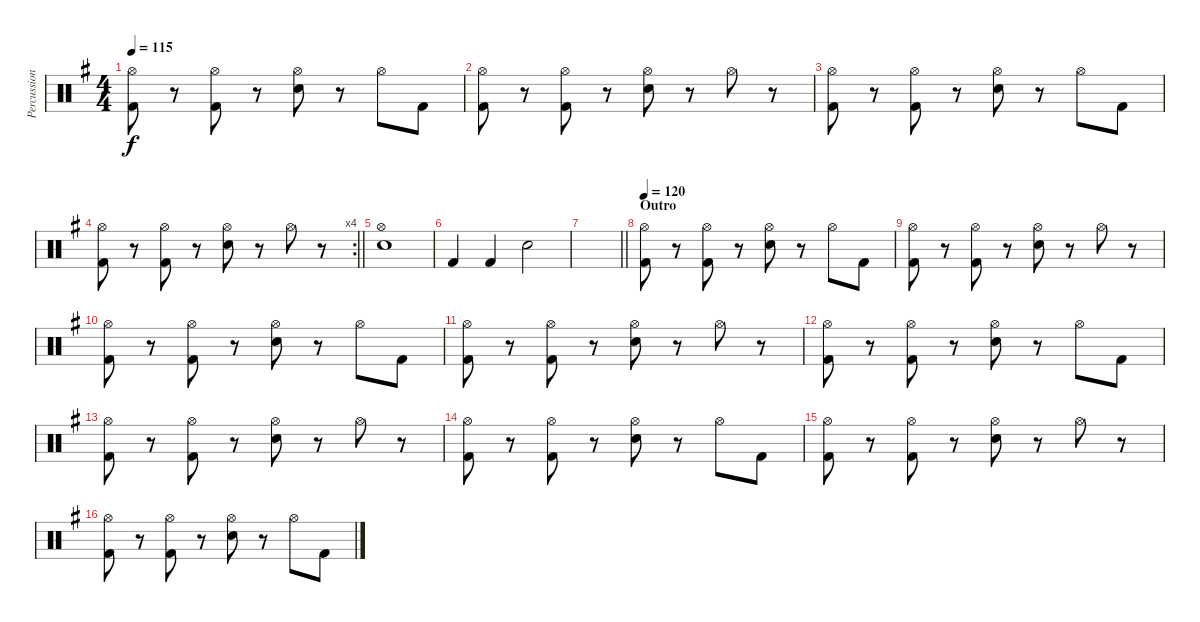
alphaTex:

\track ("Percussion" "Percussion") {instrument percussion}
\staff {score}
\articulation defaults
\ts (4 4)
\tempo 115
\clef neutral
\ks g
("Hi-Hat (open)" "Kick (hit) 2").8{dy f} r.8 ("Hi-Hat (open)" "Kick (hit) 2").8 r.8 ("Hi-Hat (open)" "Electric Snare (hit)").8 r.8 "Hi-Hat (open)".8 "Kick (hit) 2".8 |
("Hi-Hat (open)" "Kick (hit) 2").8 r.8 ("Hi-Hat (open)" "Kick (hit) 2").8 r.8 ("Hi-Hat (open)" "Electric Snare (hit)").8 r.8 "Hi-Hat (open)".8 r.8 |
("Hi-Hat (open)" "Kick (hit) 2").8 r.8 ("Hi-Hat (open)" "Kick (hit) 2").8 r.8 ("Hi-Hat (open)" "Electric Snare (hit)").8 r.8 "Hi-Hat (open)".8 "Kick (hit) 2".8 |
\rc 4
\barLineRight lightlight
("Hi-Hat (open)" "Kick (hit) 2").8 r.8 ("Hi-Hat (open)" "Kick (hit) 2").8 r.8 ("Hi-Hat (open)" "Electric Snare (hit)").8 r.8 "Hi-Hat (open)".8 r.8 |
("Hi-Hat (open)" "Electric Snare (hit)").1 |
"Kick (hit) 2".4 "Kick (hit) 2".4 "Electric Snare (hit)".2 |
\barLineRight lightlight
|
\section ("" "Outro")
\tempo 120
("Hi-Hat (open)" "Kick (hit) 2").8 r.8 ("Hi-Hat (open)" "Kick (hit) 2").8 r.8 ("Hi-Hat (open)" "Electric Snare (hit)").8 r.8 "Hi-Hat (open)".8 "Kick (hit) 2".8 |
("Hi-Hat (open)" "Kick (hit) 2").8 r.8 ("Hi-Hat (open)" "Kick (hit) 2").8 r.8 ("Hi-Hat (open)" "Electric Snare (hit)").8 r.8 "Hi-Hat (open)".8 r.8 |
("Hi-Hat (open)" "Kick (hit) 2").8 r.8 ("Hi-Hat (open)" "Kick (hit) 2").8 r.8 ("Hi-Hat (open)" "Electric Snare (hit)").8 r.8 "Hi-Hat (open)".8 "Kick (hit) 2".8 |
("Hi-Hat (open)" "Kick (hit) 2").8 r.8 ("Hi-Hat (open)" "Kick (hit) 2").8 r.8 ("Hi-Hat (open)" "Electric Snare (hit)").8 r.8 "Hi-Hat (open)".8 r.8 |
("Hi-Hat (open)" "Kick (hit) 2").8 r.8 ("Hi-Hat (open)" "Kick (hit) 2").8 r.8 ("Hi-Hat (open)" "Electric Snare (hit)").8 r.8 "Hi-Hat (open)".8 "Kick (hit) 2".8 |
("Hi-Hat (open)" "Kick (hit) 2").8 r.8 ("Hi-Hat (open)" "Kick (hit) 2").8 r.8 ("Hi-Hat (open)" "Electric Snare (hit)").8 r.8 "Hi-Hat (open)".8 r.8 |
("Hi-Hat (open)" "Kick (hit) 2").8 r.8 ("Hi-Hat (open)" "Kick (hit) 2").8 r.8 ("Hi-Hat (open)" "Electric Snare (hit)").8 r.8 "Hi-Hat (open)".8 "Kick (hit) 2".8 |
("Hi-Hat (open)" "Kick (hit) 2").8 r.8 ("Hi-Hat (open)" "Kick (hit) 2").8 r.8 ("Hi-Hat (open)" "Electric Snare (hit)").8 r.8 "Hi-Hat (open)".8 r.8 |
("Hi-Hat (open)" "Kick (hit) 2").8 r.8 ("Hi-Hat (open)" "Kick (hit) 2").8 r.8 ("Hi-Hat (open)" "Electric Snare (hit)").8 r.8 "Hi-Hat (open)".8 "Kick (hit) 2".8
